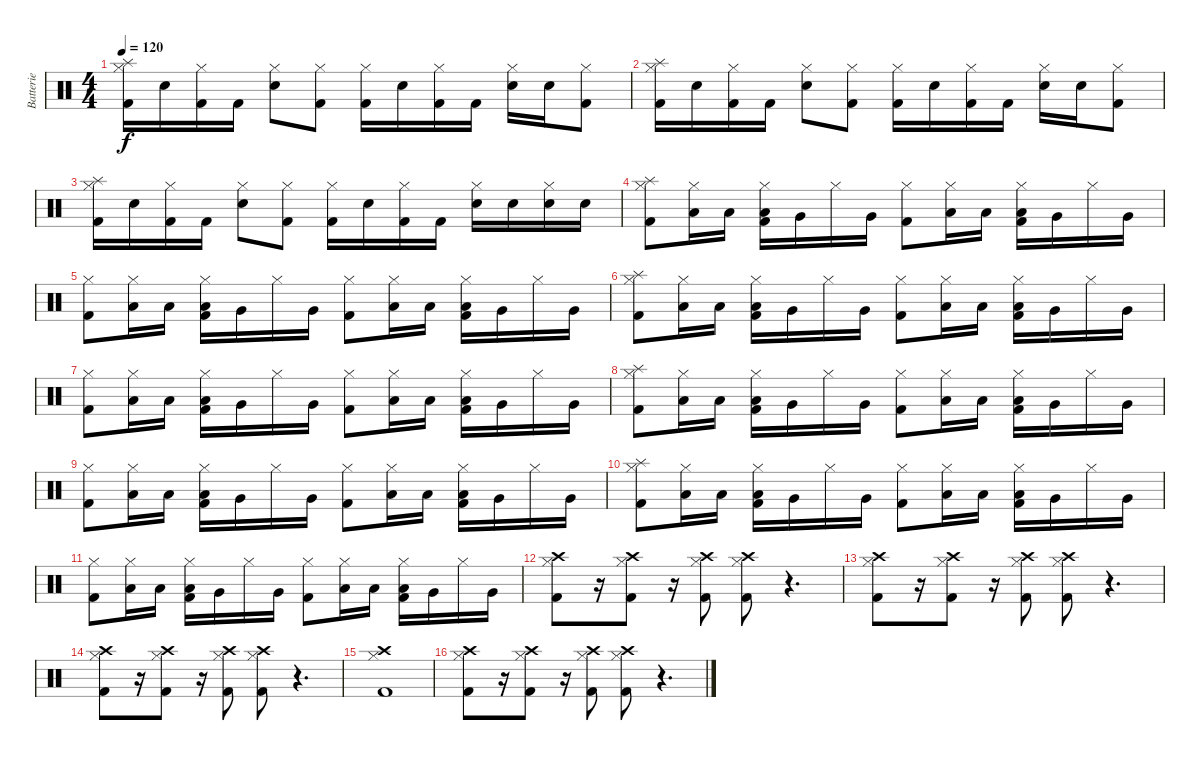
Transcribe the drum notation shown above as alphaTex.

\track ("Batterie" "Batterie") {instrument percussion}
\staff {score}
\articulation defaults
\ts (4 4)
\tempo 120
\clef neutral
\ks c
("Splash (hit)" "Hi-Hat (closed)" "Kick (hit) 2").16{dy f} "Snare (hit) 2".16 ("Hi-Hat (closed)" "Kick (hit) 2").16 "Kick (hit) 2".16 ("Hi-Hat (closed)" "Snare (hit) 2").8 ("Hi-Hat (closed)" "Kick (hit) 2").8 ("Hi-Hat (closed)" "Kick (hit) 2").16 "Snare (hit) 2".16 ("Hi-Hat (closed)" "Kick (hit) 2").16 "Kick (hit) 2".16 ("Hi-Hat (closed)" "Snare (hit) 2").16 "Snare (hit) 2".16 ("Hi-Hat (closed)" "Kick (hit) 2").8 |
("Splash (hit)" "Hi-Hat (closed)" "Kick (hit) 2").16 "Snare (hit) 2".16 ("Hi-Hat (closed)" "Kick (hit) 2").16 "Kick (hit) 2".16 ("Hi-Hat (closed)" "Snare (hit) 2").8 ("Hi-Hat (closed)" "Kick (hit) 2").8 ("Hi-Hat (closed)" "Kick (hit) 2").16 "Snare (hit) 2".16 ("Hi-Hat (closed)" "Kick (hit) 2").16 "Kick (hit) 2".16 ("Hi-Hat (closed)" "Snare (hit) 2").16 "Snare (hit) 2".16 ("Hi-Hat (closed)" "Kick (hit) 2").8 |
("Splash (hit)" "Hi-Hat (closed)" "Kick (hit) 2").16 "Snare (hit) 2".16 ("Hi-Hat (closed)" "Kick (hit) 2").16 "Kick (hit) 2".16 ("Hi-Hat (closed)" "Snare (hit) 2").8 ("Hi-Hat (closed)" "Kick (hit) 2").8 ("Hi-Hat (closed)" "Kick (hit) 2").16 "Snare (hit) 2".16 ("Hi-Hat (closed)" "Kick (hit) 2").16 "Kick (hit) 2".16 ("Hi-Hat (closed)" "Snare (hit) 2").16 "Snare (hit) 2".16 ("Hi-Hat (closed)" "Snare (hit) 2").16 "Snare (hit) 2".16 |
("Splash (hit)" "Hi-Hat (closed)" "Kick (hit) 2").8 ("Hi-Hat (closed)" "Low Tom (hit)").16 "Low Tom (hit)".16 ("Hi-Hat (closed)" "Low Tom (hit)" "Kick (hit) 2").16 "Very Low Tom (hit)".16 "Hi-Hat (closed)".16 "Very Low Tom (hit)".16 ("Hi-Hat (closed)" "Kick (hit) 2").8 ("Hi-Hat (closed)" "Low Tom (hit)").16 "Low Tom (hit)".16 ("Hi-Hat (closed)" "Low Tom (hit)" "Kick (hit) 2").16 "Very Low Tom (hit)".16 "Hi-Hat (closed)".16 "Very Low Tom (hit)".16 |
("Hi-Hat (closed)" "Kick (hit) 2").8 ("Hi-Hat (closed)" "Low Tom (hit)").16 "Low Tom (hit)".16 ("Hi-Hat (closed)" "Low Tom (hit)" "Kick (hit) 2").16 "Very Low Tom (hit)".16 "Hi-Hat (closed)".16 "Very Low Tom (hit)".16 ("Hi-Hat (closed)" "Kick (hit) 2").8 ("Hi-Hat (closed)" "Low Tom (hit)").16 "Low Tom (hit)".16 ("Hi-Hat (closed)" "Low Tom (hit)" "Kick (hit) 2").16 "Very Low Tom (hit)".16 "Hi-Hat (closed)".16 "Very Low Tom (hit)".16 |
("Splash (hit)" "Hi-Hat (closed)" "Kick (hit) 2").8 ("Hi-Hat (closed)" "Low Tom (hit)").16 "Low Tom (hit)".16 ("Hi-Hat (closed)" "Low Tom (hit)" "Kick (hit) 2").16 "Very Low Tom (hit)".16 "Hi-Hat (closed)".16 "Very Low Tom (hit)".16 ("Hi-Hat (closed)" "Kick (hit) 2").8 ("Hi-Hat (closed)" "Low Tom (hit)").16 "Low Tom (hit)".16 ("Hi-Hat (closed)" "Low Tom (hit)" "Kick (hit) 2").16 "Very Low Tom (hit)".16 "Hi-Hat (closed)".16 "Very Low Tom (hit)".16 |
("Hi-Hat (closed)" "Kick (hit) 2").8 ("Hi-Hat (closed)" "Low Tom (hit)").16 "Low Tom (hit)".16 ("Hi-Hat (closed)" "Low Tom (hit)" "Kick (hit) 2").16 "Very Low Tom (hit)".16 "Hi-Hat (closed)".16 "Very Low Tom (hit)".16 ("Hi-Hat (closed)" "Kick (hit) 2").8 ("Hi-Hat (closed)" "Low Tom (hit)").16 "Low Tom (hit)".16 ("Hi-Hat (closed)" "Low Tom (hit)" "Kick (hit) 2").16 "Very Low Tom (hit)".16 "Hi-Hat (closed)".16 "Very Low Tom (hit)".16 |
("Splash (hit)" "Hi-Hat (closed)" "Kick (hit) 2").8 ("Hi-Hat (closed)" "Low Tom (hit)").16 "Low Tom (hit)".16 ("Hi-Hat (closed)" "Low Tom (hit)" "Kick (hit) 2").16 "Very Low Tom (hit)".16 "Hi-Hat (closed)".16 "Very Low Tom (hit)".16 ("Hi-Hat (closed)" "Kick (hit) 2").8 ("Hi-Hat (closed)" "Low Tom (hit)").16 "Low Tom (hit)".16 ("Hi-Hat (closed)" "Low Tom (hit)" "Kick (hit) 2").16 "Very Low Tom (hit)".16 "Hi-Hat (closed)".16 "Very Low Tom (hit)".16 |
("Hi-Hat (closed)" "Kick (hit) 2").8 ("Hi-Hat (closed)" "Low Tom (hit)").16 "Low Tom (hit)".16 ("Hi-Hat (closed)" "Low Tom (hit)" "Kick (hit) 2").16 "Very Low Tom (hit)".16 "Hi-Hat (closed)".16 "Very Low Tom (hit)".16 ("Hi-Hat (closed)" "Kick (hit) 2").8 ("Hi-Hat (closed)" "Low Tom (hit)").16 "Low Tom (hit)".16 ("Hi-Hat (closed)" "Low Tom (hit)" "Kick (hit) 2").16 "Very Low Tom (hit)".16 "Hi-Hat (closed)".16 "Very Low Tom (hit)".16 |
("Splash (hit)" "Hi-Hat (closed)" "Kick (hit) 2").8 ("Hi-Hat (closed)" "Low Tom (hit)").16 "Low Tom (hit)".16 ("Hi-Hat (closed)" "Low Tom (hit)" "Kick (hit) 2").16 "Very Low Tom (hit)".16 "Hi-Hat (closed)".16 "Very Low Tom (hit)".16 ("Hi-Hat (closed)" "Kick (hit) 2").8 ("Hi-Hat (closed)" "Low Tom (hit)").16 "Low Tom (hit)".16 ("Hi-Hat (closed)" "Low Tom (hit)" "Kick (hit) 2").16 "Very Low Tom (hit)".16 "Hi-Hat (closed)".16 "Very Low Tom (hit)".16 |
("Hi-Hat (closed)" "Kick (hit) 2").8 ("Hi-Hat (closed)" "Low Tom (hit)").16 "Low Tom (hit)".16 ("Hi-Hat (closed)" "Low Tom (hit)" "Kick (hit) 2").16 "Very Low Tom (hit)".16 "Hi-Hat (closed)".16 "Very Low Tom (hit)".16 ("Hi-Hat (closed)" "Kick (hit) 2").8 ("Hi-Hat (closed)" "Low Tom (hit)").16 "Low Tom (hit)".16 ("Hi-Hat (closed)" "Low Tom (hit)" "Kick (hit) 2").16 "Very Low Tom (hit)".16 "Hi-Hat (closed)".16 "Very Low Tom (hit)".16 |
("Hi-Hat (closed)" "Crash high (hit)" "Kick (hit) 2").8 r.16 ("Hi-Hat (closed)" "Crash high (hit)" "Kick (hit) 2").8 r.16 ("Hi-Hat (closed)" "Crash high (hit)" "Kick (hit) 2").8 ("Hi-Hat (closed)" "Crash high (hit)" "Kick (hit) 2").8 r.4{d} |
("Hi-Hat (closed)" "Crash high (hit)" "Kick (hit) 2").8 r.16 ("Hi-Hat (closed)" "Crash high (hit)" "Kick (hit) 2").8 r.16 ("Hi-Hat (closed)" "Crash high (hit)" "Kick (hit) 2").8 ("Hi-Hat (closed)" "Crash high (hit)" "Kick (hit) 2").8 r.4{d} |
("Hi-Hat (closed)" "Crash high (hit)" "Kick (hit) 2").8 r.16 ("Hi-Hat (closed)" "Crash high (hit)" "Kick (hit) 2").8 r.16 ("Hi-Hat (closed)" "Crash high (hit)" "Kick (hit) 2").8 ("Hi-Hat (closed)" "Crash high (hit)" "Kick (hit) 2").8 r.4{d} |
("Crash high (hit)" "Hi-Hat (closed)" "Kick (hit) 2").1 |
("Hi-Hat (closed)" "Crash high (hit)" "Kick (hit) 2").8 r.16 ("Hi-Hat (closed)" "Crash high (hit)" "Kick (hit) 2").8 r.16 ("Hi-Hat (closed)" "Crash high (hit)" "Kick (hit) 2").8 ("Hi-Hat (closed)" "Crash high (hit)" "Kick (hit) 2").8 r.4{d}
